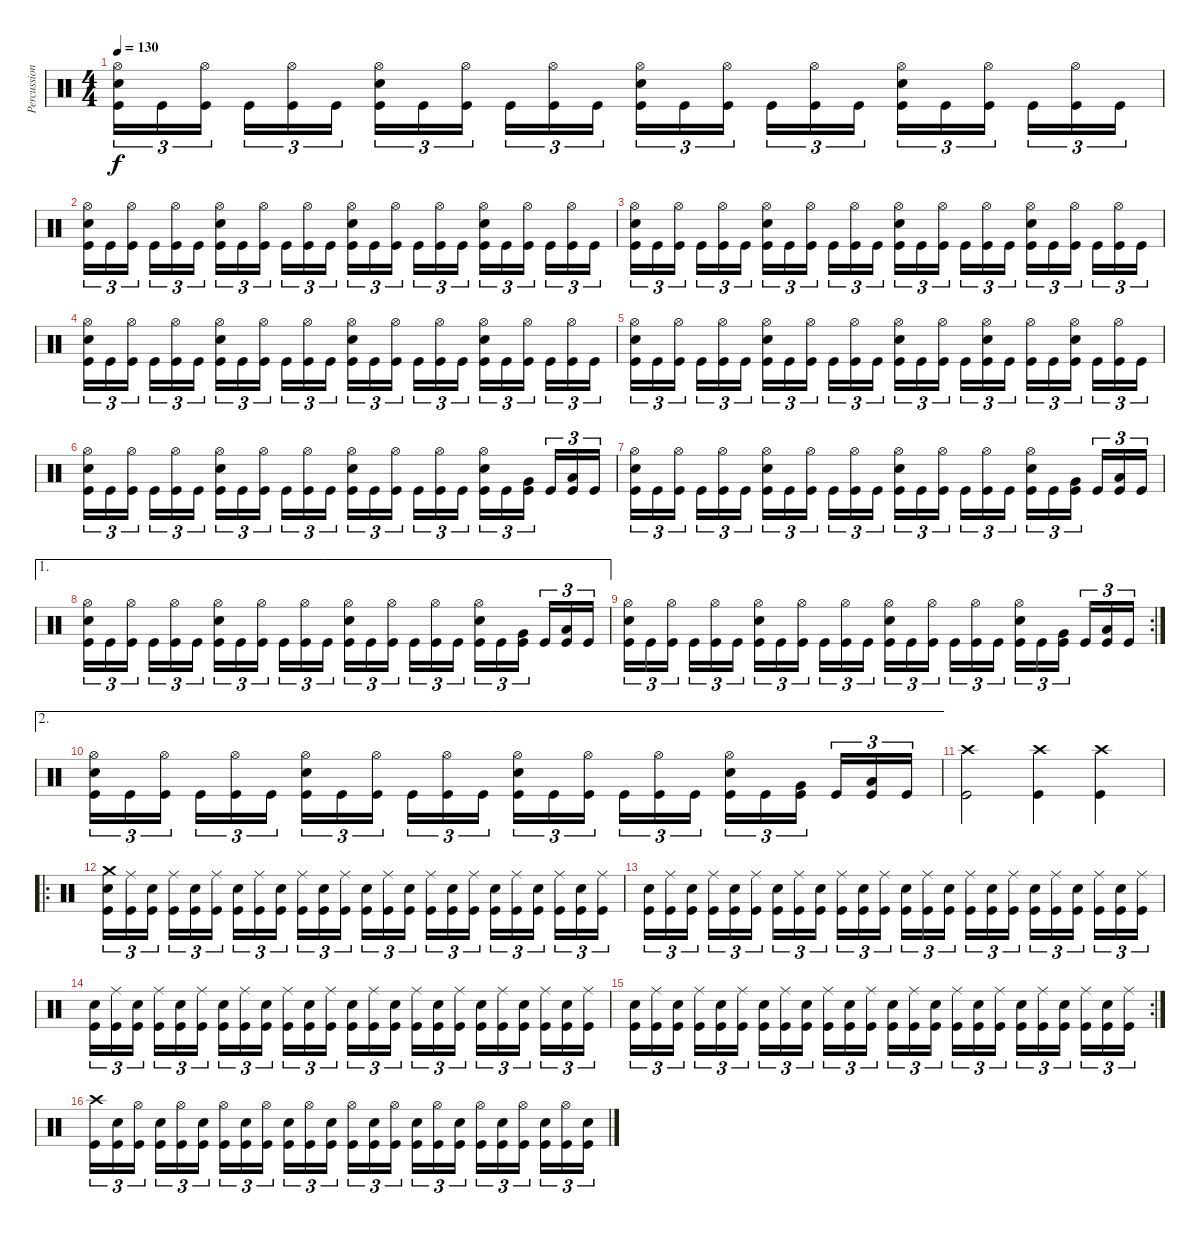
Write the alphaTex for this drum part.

\track ("Percussion" "Percussion") {instrument percussion}
\staff {score}
\articulation defaults
\ts (4 4)
\tempo 130
\clef neutral
\ks c
("Hi-Hat (open)" "Electric Snare (hit)" "Kick (hit)").16{tu (3 2) dy f} "Kick (hit)".16{tu (3 2)} ("Hi-Hat (open)" "Kick (hit)").16{tu (3 2) beam splitsecondary} "Kick (hit)".16{tu (3 2)} ("Hi-Hat (open)" "Kick (hit)").16{tu (3 2)} "Kick (hit)".16{tu (3 2)} ("Hi-Hat (open)" "Electric Snare (hit)" "Kick (hit)").16{tu (3 2)} "Kick (hit)".16{tu (3 2)} ("Hi-Hat (open)" "Kick (hit)").16{tu (3 2) beam splitsecondary} "Kick (hit)".16{tu (3 2)} ("Hi-Hat (open)" "Kick (hit)").16{tu (3 2)} "Kick (hit)".16{tu (3 2)} ("Hi-Hat (open)" "Electric Snare (hit)" "Kick (hit)").16{tu (3 2)} "Kick (hit)".16{tu (3 2)} ("Hi-Hat (open)" "Kick (hit)").16{tu (3 2) beam splitsecondary} "Kick (hit)".16{tu (3 2)} ("Hi-Hat (open)" "Kick (hit)").16{tu (3 2)} "Kick (hit)".16{tu (3 2)} ("Hi-Hat (open)" "Electric Snare (hit)" "Kick (hit)").16{tu (3 2)} "Kick (hit)".16{tu (3 2)} ("Hi-Hat (open)" "Kick (hit)").16{tu (3 2) beam splitsecondary} "Kick (hit)".16{tu (3 2)} ("Hi-Hat (open)" "Kick (hit)").16{tu (3 2)} "Kick (hit)".16{tu (3 2)} |
("Hi-Hat (open)" "Electric Snare (hit)" "Kick (hit)").16{tu (3 2)} "Kick (hit)".16{tu (3 2)} ("Hi-Hat (open)" "Kick (hit)").16{tu (3 2) beam splitsecondary} "Kick (hit)".16{tu (3 2)} ("Hi-Hat (open)" "Kick (hit)").16{tu (3 2)} "Kick (hit)".16{tu (3 2)} ("Hi-Hat (open)" "Electric Snare (hit)" "Kick (hit)").16{tu (3 2)} "Kick (hit)".16{tu (3 2)} ("Hi-Hat (open)" "Kick (hit)").16{tu (3 2) beam splitsecondary} "Kick (hit)".16{tu (3 2)} ("Hi-Hat (open)" "Kick (hit)").16{tu (3 2)} "Kick (hit)".16{tu (3 2)} ("Hi-Hat (open)" "Electric Snare (hit)" "Kick (hit)").16{tu (3 2)} "Kick (hit)".16{tu (3 2)} ("Hi-Hat (open)" "Kick (hit)").16{tu (3 2) beam splitsecondary} "Kick (hit)".16{tu (3 2)} ("Hi-Hat (open)" "Kick (hit)").16{tu (3 2)} "Kick (hit)".16{tu (3 2)} ("Hi-Hat (open)" "Electric Snare (hit)" "Kick (hit)").16{tu (3 2)} "Kick (hit)".16{tu (3 2)} ("Hi-Hat (open)" "Kick (hit)").16{tu (3 2) beam splitsecondary} "Kick (hit)".16{tu (3 2)} ("Hi-Hat (open)" "Kick (hit)").16{tu (3 2)} "Kick (hit)".16{tu (3 2)} |
("Hi-Hat (open)" "Electric Snare (hit)" "Kick (hit)").16{tu (3 2)} "Kick (hit)".16{tu (3 2)} ("Hi-Hat (open)" "Kick (hit)").16{tu (3 2) beam splitsecondary} "Kick (hit)".16{tu (3 2)} ("Hi-Hat (open)" "Kick (hit)").16{tu (3 2)} "Kick (hit)".16{tu (3 2)} ("Hi-Hat (open)" "Electric Snare (hit)" "Kick (hit)").16{tu (3 2)} "Kick (hit)".16{tu (3 2)} ("Hi-Hat (open)" "Kick (hit)").16{tu (3 2) beam splitsecondary} "Kick (hit)".16{tu (3 2)} ("Hi-Hat (open)" "Kick (hit)").16{tu (3 2)} "Kick (hit)".16{tu (3 2)} ("Hi-Hat (open)" "Electric Snare (hit)" "Kick (hit)").16{tu (3 2)} "Kick (hit)".16{tu (3 2)} ("Hi-Hat (open)" "Kick (hit)").16{tu (3 2) beam splitsecondary} "Kick (hit)".16{tu (3 2)} ("Hi-Hat (open)" "Kick (hit)").16{tu (3 2)} "Kick (hit)".16{tu (3 2)} ("Hi-Hat (open)" "Electric Snare (hit)" "Kick (hit)").16{tu (3 2)} "Kick (hit)".16{tu (3 2)} ("Hi-Hat (open)" "Kick (hit)").16{tu (3 2) beam splitsecondary} "Kick (hit)".16{tu (3 2)} ("Hi-Hat (open)" "Kick (hit)").16{tu (3 2)} "Kick (hit)".16{tu (3 2)} |
("Hi-Hat (open)" "Electric Snare (hit)" "Kick (hit)").16{tu (3 2)} "Kick (hit)".16{tu (3 2)} ("Hi-Hat (open)" "Kick (hit)").16{tu (3 2) beam splitsecondary} "Kick (hit)".16{tu (3 2)} ("Hi-Hat (open)" "Kick (hit)").16{tu (3 2)} "Kick (hit)".16{tu (3 2)} ("Hi-Hat (open)" "Electric Snare (hit)" "Kick (hit)").16{tu (3 2)} "Kick (hit)".16{tu (3 2)} ("Hi-Hat (open)" "Kick (hit)").16{tu (3 2) beam splitsecondary} "Kick (hit)".16{tu (3 2)} ("Hi-Hat (open)" "Kick (hit)").16{tu (3 2)} "Kick (hit)".16{tu (3 2)} ("Hi-Hat (open)" "Electric Snare (hit)" "Kick (hit)").16{tu (3 2)} "Kick (hit)".16{tu (3 2)} ("Hi-Hat (open)" "Kick (hit)").16{tu (3 2) beam splitsecondary} "Kick (hit)".16{tu (3 2)} ("Hi-Hat (open)" "Kick (hit)").16{tu (3 2)} "Kick (hit)".16{tu (3 2)} ("Hi-Hat (open)" "Electric Snare (hit)" "Kick (hit)").16{tu (3 2)} "Kick (hit)".16{tu (3 2)} ("Hi-Hat (open)" "Kick (hit)").16{tu (3 2) beam splitsecondary} "Kick (hit)".16{tu (3 2)} ("Hi-Hat (open)" "Kick (hit)").16{tu (3 2)} "Kick (hit)".16{tu (3 2)} |
("Hi-Hat (open)" "Electric Snare (hit)" "Kick (hit)").16{tu (3 2)} "Kick (hit)".16{tu (3 2)} ("Hi-Hat (open)" "Kick (hit)").16{tu (3 2) beam splitsecondary} "Kick (hit)".16{tu (3 2)} ("Hi-Hat (open)" "Kick (hit)").16{tu (3 2)} "Kick (hit)".16{tu (3 2)} ("Hi-Hat (open)" "Electric Snare (hit)" "Kick (hit)").16{tu (3 2)} "Kick (hit)".16{tu (3 2)} ("Hi-Hat (open)" "Kick (hit)").16{tu (3 2) beam splitsecondary} "Kick (hit)".16{tu (3 2)} ("Hi-Hat (open)" "Kick (hit)").16{tu (3 2)} "Kick (hit)".16{tu (3 2)} ("Hi-Hat (open)" "Electric Snare (hit)" "Kick (hit)").16{tu (3 2)} "Kick (hit)".16{tu (3 2)} ("Hi-Hat (open)" "Kick (hit)").16{tu (3 2) beam splitsecondary} "Kick (hit)".16{tu (3 2)} ("Hi-Hat (open)" "Electric Snare (hit)" "Kick (hit)").16{tu (3 2)} "Kick (hit)".16{tu (3 2)} ("Hi-Hat (open)" "Kick (hit)").16{tu (3 2)} "Kick (hit)".16{tu (3 2)} ("Hi-Hat (open)" "Electric Snare (hit)" "Kick (hit)").16{tu (3 2) beam splitsecondary} "Kick (hit)".16{tu (3 2)} ("Hi-Hat (open)" "Kick (hit)").16{tu (3 2)} "Kick (hit)".16{tu (3 2)} |
("Hi-Hat (open)" "Electric Snare (hit)" "Kick (hit)").16{tu (3 2)} "Kick (hit)".16{tu (3 2)} ("Hi-Hat (open)" "Kick (hit)").16{tu (3 2) beam splitsecondary} "Kick (hit)".16{tu (3 2)} ("Hi-Hat (open)" "Kick (hit)").16{tu (3 2)} "Kick (hit)".16{tu (3 2)} ("Hi-Hat (open)" "Electric Snare (hit)" "Kick (hit)").16{tu (3 2)} "Kick (hit)".16{tu (3 2)} ("Hi-Hat (open)" "Kick (hit)").16{tu (3 2) beam splitsecondary} "Kick (hit)".16{tu (3 2)} ("Hi-Hat (open)" "Kick (hit)").16{tu (3 2)} "Kick (hit)".16{tu (3 2)} ("Hi-Hat (open)" "Electric Snare (hit)" "Kick (hit)").16{tu (3 2)} "Kick (hit)".16{tu (3 2)} ("Hi-Hat (open)" "Kick (hit)").16{tu (3 2) beam splitsecondary} "Kick (hit)".16{tu (3 2)} ("Hi-Hat (open)" "Kick (hit)").16{tu (3 2)} "Kick (hit)".16{tu (3 2)} ("Hi-Hat (open)" "Electric Snare (hit)" "Kick (hit)").16{tu (3 2)} "Kick (hit)".16{tu (3 2)} ("Very Low Tom (hit)" "Kick (hit)").16{tu (3 2) beam splitsecondary} "Kick (hit)".16{tu (3 2)} ("Low Floor Tom (hit)" "Kick (hit)").16{tu (3 2)} "Kick (hit)".16{tu (3 2)} |
("Hi-Hat (open)" "Electric Snare (hit)" "Kick (hit)").16{tu (3 2)} "Kick (hit)".16{tu (3 2)} ("Hi-Hat (open)" "Kick (hit)").16{tu (3 2) beam splitsecondary} "Kick (hit)".16{tu (3 2)} ("Hi-Hat (open)" "Kick (hit)").16{tu (3 2)} "Kick (hit)".16{tu (3 2)} ("Hi-Hat (open)" "Electric Snare (hit)" "Kick (hit)").16{tu (3 2)} "Kick (hit)".16{tu (3 2)} ("Hi-Hat (open)" "Kick (hit)").16{tu (3 2) beam splitsecondary} "Kick (hit)".16{tu (3 2)} ("Hi-Hat (open)" "Kick (hit)").16{tu (3 2)} "Kick (hit)".16{tu (3 2)} ("Hi-Hat (open)" "Electric Snare (hit)" "Kick (hit)").16{tu (3 2)} "Kick (hit)".16{tu (3 2)} ("Hi-Hat (open)" "Kick (hit)").16{tu (3 2) beam splitsecondary} "Kick (hit)".16{tu (3 2)} ("Hi-Hat (open)" "Kick (hit)").16{tu (3 2)} "Kick (hit)".16{tu (3 2)} ("Hi-Hat (open)" "Electric Snare (hit)" "Kick (hit)").16{tu (3 2)} "Kick (hit)".16{tu (3 2)} ("Very Low Tom (hit)" "Kick (hit)").16{tu (3 2) beam splitsecondary} "Kick (hit)".16{tu (3 2)} ("Low Floor Tom (hit)" "Kick (hit)").16{tu (3 2)} "Kick (hit)".16{tu (3 2)} |
\ae 1
("Hi-Hat (open)" "Electric Snare (hit)" "Kick (hit)").16{tu (3 2)} "Kick (hit)".16{tu (3 2)} ("Hi-Hat (open)" "Kick (hit)").16{tu (3 2) beam splitsecondary} "Kick (hit)".16{tu (3 2)} ("Hi-Hat (open)" "Kick (hit)").16{tu (3 2)} "Kick (hit)".16{tu (3 2)} ("Hi-Hat (open)" "Electric Snare (hit)" "Kick (hit)").16{tu (3 2)} "Kick (hit)".16{tu (3 2)} ("Hi-Hat (open)" "Kick (hit)").16{tu (3 2) beam splitsecondary} "Kick (hit)".16{tu (3 2)} ("Hi-Hat (open)" "Kick (hit)").16{tu (3 2)} "Kick (hit)".16{tu (3 2)} ("Hi-Hat (open)" "Electric Snare (hit)" "Kick (hit)").16{tu (3 2)} "Kick (hit)".16{tu (3 2)} ("Hi-Hat (open)" "Kick (hit)").16{tu (3 2) beam splitsecondary} "Kick (hit)".16{tu (3 2)} ("Hi-Hat (open)" "Kick (hit)").16{tu (3 2)} "Kick (hit)".16{tu (3 2)} ("Hi-Hat (open)" "Electric Snare (hit)" "Kick (hit)").16{tu (3 2)} "Kick (hit)".16{tu (3 2)} ("Very Low Tom (hit)" "Kick (hit)").16{tu (3 2) beam splitsecondary} "Kick (hit)".16{tu (3 2)} ("Low Floor Tom (hit)" "Kick (hit)").16{tu (3 2)} "Kick (hit)".16{tu (3 2)} |
\rc 2
("Hi-Hat (open)" "Electric Snare (hit)" "Kick (hit)").16{tu (3 2)} "Kick (hit)".16{tu (3 2)} ("Hi-Hat (open)" "Kick (hit)").16{tu (3 2) beam splitsecondary} "Kick (hit)".16{tu (3 2)} ("Hi-Hat (open)" "Kick (hit)").16{tu (3 2)} "Kick (hit)".16{tu (3 2)} ("Hi-Hat (open)" "Electric Snare (hit)" "Kick (hit)").16{tu (3 2)} "Kick (hit)".16{tu (3 2)} ("Hi-Hat (open)" "Kick (hit)").16{tu (3 2) beam splitsecondary} "Kick (hit)".16{tu (3 2)} ("Hi-Hat (open)" "Kick (hit)").16{tu (3 2)} "Kick (hit)".16{tu (3 2)} ("Hi-Hat (open)" "Electric Snare (hit)" "Kick (hit)").16{tu (3 2)} "Kick (hit)".16{tu (3 2)} ("Hi-Hat (open)" "Kick (hit)").16{tu (3 2) beam splitsecondary} "Kick (hit)".16{tu (3 2)} ("Hi-Hat (open)" "Kick (hit)").16{tu (3 2)} "Kick (hit)".16{tu (3 2)} ("Hi-Hat (open)" "Electric Snare (hit)" "Kick (hit)").16{tu (3 2)} "Kick (hit)".16{tu (3 2)} ("Very Low Tom (hit)" "Kick (hit)").16{tu (3 2) beam splitsecondary} "Kick (hit)".16{tu (3 2)} ("Low Floor Tom (hit)" "Kick (hit)").16{tu (3 2)} "Kick (hit)".16{tu (3 2)} |
\ae 2
("Hi-Hat (open)" "Electric Snare (hit)" "Kick (hit)").16{tu (3 2)} "Kick (hit)".16{tu (3 2)} ("Hi-Hat (open)" "Kick (hit)").16{tu (3 2) beam splitsecondary} "Kick (hit)".16{tu (3 2)} ("Hi-Hat (open)" "Kick (hit)").16{tu (3 2)} "Kick (hit)".16{tu (3 2)} ("Hi-Hat (open)" "Electric Snare (hit)" "Kick (hit)").16{tu (3 2)} "Kick (hit)".16{tu (3 2)} ("Hi-Hat (open)" "Kick (hit)").16{tu (3 2) beam splitsecondary} "Kick (hit)".16{tu (3 2)} ("Hi-Hat (open)" "Kick (hit)").16{tu (3 2)} "Kick (hit)".16{tu (3 2)} ("Hi-Hat (open)" "Electric Snare (hit)" "Kick (hit)").16{tu (3 2)} "Kick (hit)".16{tu (3 2)} ("Hi-Hat (open)" "Kick (hit)").16{tu (3 2) beam splitsecondary} "Kick (hit)".16{tu (3 2)} ("Hi-Hat (open)" "Kick (hit)").16{tu (3 2)} "Kick (hit)".16{tu (3 2)} ("Hi-Hat (open)" "Electric Snare (hit)" "Kick (hit)").16{tu (3 2)} "Kick (hit)".16{tu (3 2)} ("Very Low Tom (hit)" "Kick (hit)").16{tu (3 2) beam splitsecondary} "Kick (hit)".16{tu (3 2)} ("Low Floor Tom (hit)" "Kick (hit)").16{tu (3 2)} "Kick (hit)".16{tu (3 2)} |
("Crash high (hit)" "Kick (hit)").2 ("Crash high (hit)" "Kick (hit)").4 ("Crash high (hit)" "Kick (hit)").4 |
\ro
("Crash medium (hit)" "Electric Snare (hit)" "Kick (hit)").16{tu (3 2)} ("Ride (middle)" "Kick (hit)").16{tu (3 2)} ("Electric Snare (hit)" "Kick (hit)").16{tu (3 2) beam splitsecondary} ("Ride (middle)" "Kick (hit)").16{tu (3 2)} ("Electric Snare (hit)" "Kick (hit)").16{tu (3 2)} ("Ride (middle)" "Kick (hit)").16{tu (3 2)} ("Electric Snare (hit)" "Kick (hit)").16{tu (3 2)} ("Ride (middle)" "Kick (hit)").16{tu (3 2)} ("Electric Snare (hit)" "Kick (hit)").16{tu (3 2) beam splitsecondary} ("Ride (middle)" "Kick (hit)").16{tu (3 2)} ("Electric Snare (hit)" "Kick (hit)").16{tu (3 2)} ("Ride (middle)" "Kick (hit)").16{tu (3 2)} ("Electric Snare (hit)" "Kick (hit)").16{tu (3 2)} ("Ride (middle)" "Kick (hit)").16{tu (3 2)} ("Electric Snare (hit)" "Kick (hit)").16{tu (3 2) beam splitsecondary} ("Ride (middle)" "Kick (hit)").16{tu (3 2)} ("Electric Snare (hit)" "Kick (hit)").16{tu (3 2)} ("Ride (middle)" "Kick (hit)").16{tu (3 2)} ("Electric Snare (hit)" "Kick (hit)").16{tu (3 2)} ("Ride (middle)" "Kick (hit)").16{tu (3 2)} ("Electric Snare (hit)" "Kick (hit)").16{tu (3 2) beam splitsecondary} ("Ride (middle)" "Kick (hit)").16{tu (3 2)} ("Electric Snare (hit)" "Kick (hit)").16{tu (3 2)} ("Ride (middle)" "Kick (hit)").16{tu (3 2)} |
("Electric Snare (hit)" "Kick (hit)").16{tu (3 2)} ("Ride (middle)" "Kick (hit)").16{tu (3 2)} ("Electric Snare (hit)" "Kick (hit)").16{tu (3 2) beam splitsecondary} ("Ride (middle)" "Kick (hit)").16{tu (3 2)} ("Electric Snare (hit)" "Kick (hit)").16{tu (3 2)} ("Ride (middle)" "Kick (hit)").16{tu (3 2)} ("Electric Snare (hit)" "Kick (hit)").16{tu (3 2)} ("Ride (middle)" "Kick (hit)").16{tu (3 2)} ("Electric Snare (hit)" "Kick (hit)").16{tu (3 2) beam splitsecondary} ("Ride (middle)" "Kick (hit)").16{tu (3 2)} ("Electric Snare (hit)" "Kick (hit)").16{tu (3 2)} ("Ride (middle)" "Kick (hit)").16{tu (3 2)} ("Electric Snare (hit)" "Kick (hit)").16{tu (3 2)} ("Ride (middle)" "Kick (hit)").16{tu (3 2)} ("Electric Snare (hit)" "Kick (hit)").16{tu (3 2) beam splitsecondary} ("Ride (middle)" "Kick (hit)").16{tu (3 2)} ("Electric Snare (hit)" "Kick (hit)").16{tu (3 2)} ("Ride (middle)" "Kick (hit)").16{tu (3 2)} ("Electric Snare (hit)" "Kick (hit)").16{tu (3 2)} ("Ride (middle)" "Kick (hit)").16{tu (3 2)} ("Electric Snare (hit)" "Kick (hit)").16{tu (3 2) beam splitsecondary} ("Ride (middle)" "Kick (hit)").16{tu (3 2)} ("Electric Snare (hit)" "Kick (hit)").16{tu (3 2)} ("Ride (middle)" "Kick (hit)").16{tu (3 2)} |
("Electric Snare (hit)" "Kick (hit)").16{tu (3 2)} ("Ride (middle)" "Kick (hit)").16{tu (3 2)} ("Electric Snare (hit)" "Kick (hit)").16{tu (3 2) beam splitsecondary} ("Ride (middle)" "Kick (hit)").16{tu (3 2)} ("Electric Snare (hit)" "Kick (hit)").16{tu (3 2)} ("Ride (middle)" "Kick (hit)").16{tu (3 2)} ("Electric Snare (hit)" "Kick (hit)").16{tu (3 2)} ("Ride (middle)" "Kick (hit)").16{tu (3 2)} ("Electric Snare (hit)" "Kick (hit)").16{tu (3 2) beam splitsecondary} ("Ride (middle)" "Kick (hit)").16{tu (3 2)} ("Electric Snare (hit)" "Kick (hit)").16{tu (3 2)} ("Ride (middle)" "Kick (hit)").16{tu (3 2)} ("Electric Snare (hit)" "Kick (hit)").16{tu (3 2)} ("Ride (middle)" "Kick (hit)").16{tu (3 2)} ("Electric Snare (hit)" "Kick (hit)").16{tu (3 2) beam splitsecondary} ("Ride (middle)" "Kick (hit)").16{tu (3 2)} ("Electric Snare (hit)" "Kick (hit)").16{tu (3 2)} ("Ride (middle)" "Kick (hit)").16{tu (3 2)} ("Electric Snare (hit)" "Kick (hit)").16{tu (3 2)} ("Ride (middle)" "Kick (hit)").16{tu (3 2)} ("Electric Snare (hit)" "Kick (hit)").16{tu (3 2) beam splitsecondary} ("Ride (middle)" "Kick (hit)").16{tu (3 2)} ("Electric Snare (hit)" "Kick (hit)").16{tu (3 2)} ("Ride (middle)" "Kick (hit)").16{tu (3 2)} |
\rc 2
("Electric Snare (hit)" "Kick (hit)").16{tu (3 2)} ("Ride (middle)" "Kick (hit)").16{tu (3 2)} ("Electric Snare (hit)" "Kick (hit)").16{tu (3 2) beam splitsecondary} ("Ride (middle)" "Kick (hit)").16{tu (3 2)} ("Electric Snare (hit)" "Kick (hit)").16{tu (3 2)} ("Ride (middle)" "Kick (hit)").16{tu (3 2)} ("Electric Snare (hit)" "Kick (hit)").16{tu (3 2)} ("Ride (middle)" "Kick (hit)").16{tu (3 2)} ("Electric Snare (hit)" "Kick (hit)").16{tu (3 2) beam splitsecondary} ("Ride (middle)" "Kick (hit)").16{tu (3 2)} ("Electric Snare (hit)" "Kick (hit)").16{tu (3 2)} ("Ride (middle)" "Kick (hit)").16{tu (3 2)} ("Electric Snare (hit)" "Kick (hit)").16{tu (3 2)} ("Ride (middle)" "Kick (hit)").16{tu (3 2)} ("Electric Snare (hit)" "Kick (hit)").16{tu (3 2) beam splitsecondary} ("Ride (middle)" "Kick (hit)").16{tu (3 2)} ("Electric Snare (hit)" "Kick (hit)").16{tu (3 2)} ("Ride (middle)" "Kick (hit)").16{tu (3 2)} ("Electric Snare (hit)" "Kick (hit)").16{tu (3 2)} ("Ride (middle)" "Kick (hit)").16{tu (3 2)} ("Electric Snare (hit)" "Kick (hit)").16{tu (3 2) beam splitsecondary} ("Ride (middle)" "Kick (hit)").16{tu (3 2)} ("Electric Snare (hit)" "Kick (hit)").16{tu (3 2)} ("Ride (middle)" "Kick (hit)").16{tu (3 2)} |
("Crash high (hit)" "Kick (hit)").16{tu (3 2)} ("Electric Snare (hit)" "Kick (hit)").16{tu (3 2)} ("Hi-Hat (open)" "Kick (hit)").16{tu (3 2) beam splitsecondary} ("Electric Snare (hit)" "Kick (hit)").16{tu (3 2)} ("Hi-Hat (open)" "Kick (hit)").16{tu (3 2)} ("Electric Snare (hit)" "Kick (hit)").16{tu (3 2)} ("Hi-Hat (open)" "Kick (hit)").16{tu (3 2)} ("Electric Snare (hit)" "Kick (hit)").16{tu (3 2)} ("Hi-Hat (open)" "Kick (hit)").16{tu (3 2) beam splitsecondary} ("Electric Snare (hit)" "Kick (hit)").16{tu (3 2)} ("Hi-Hat (open)" "Kick (hit)").16{tu (3 2)} ("Electric Snare (hit)" "Kick (hit)").16{tu (3 2)} ("Hi-Hat (open)" "Kick (hit)").16{tu (3 2)} ("Electric Snare (hit)" "Kick (hit)").16{tu (3 2)} ("Hi-Hat (open)" "Kick (hit)").16{tu (3 2) beam splitsecondary} ("Electric Snare (hit)" "Kick (hit)").16{tu (3 2)} ("Hi-Hat (open)" "Kick (hit)").16{tu (3 2)} ("Electric Snare (hit)" "Kick (hit)").16{tu (3 2)} ("Hi-Hat (open)" "Kick (hit)").16{tu (3 2)} ("Electric Snare (hit)" "Kick (hit)").16{tu (3 2)} ("Hi-Hat (open)" "Kick (hit)").16{tu (3 2) beam splitsecondary} ("Electric Snare (hit)" "Kick (hit)").16{tu (3 2)} ("Hi-Hat (open)" "Kick (hit)").16{tu (3 2)} ("Electric Snare (hit)" "Kick (hit)").16{tu (3 2)}
